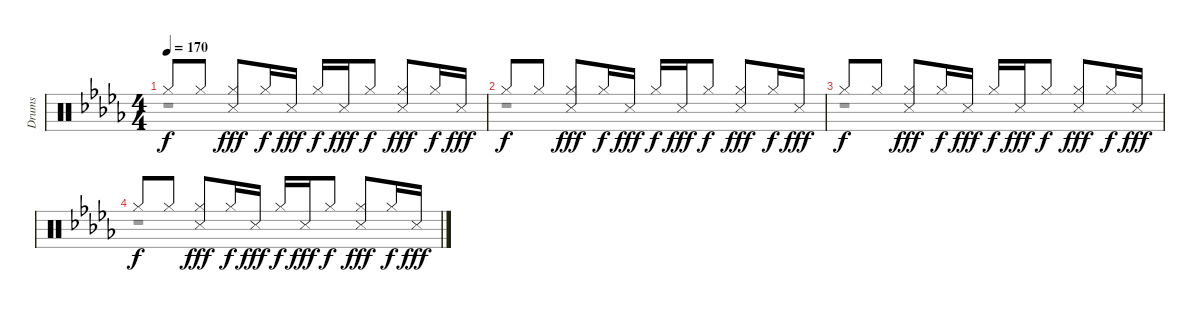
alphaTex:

\track ("Drums" "Drums") {instrument percussion}
\staff {score}
\articulation defaults
\voice
\ts (4 4)
\tempo 170
\clef neutral
\ks db "Hi-Hat (closed)".8{dy f} "Hi-Hat (closed)".8
("Hi-Hat (closed)" "Snare (side stick) 3").8{dy fff} "Hi-Hat (closed)".16{dy f} "Snare (side stick) 3".16{dy fff} "Hi-Hat (closed)".16{dy f} "Snare (side stick) 3".16{dy fff} "Hi-Hat (closed)".8{dy f} ("Hi-Hat (closed)" "Snare (side stick) 3").8{dy fff} "Hi-Hat (closed)".16{dy f} "Snare (side stick) 3".16{dy fff} |
"Hi-Hat (closed)".8{dy f} "Hi-Hat (closed)".8 ("Hi-Hat (closed)" "Snare (side stick) 3").8{dy fff} "Hi-Hat (closed)".16{dy f} "Snare (side stick) 3".16{dy fff} "Hi-Hat (closed)".16{dy f} "Snare (side stick) 3".16{dy fff} "Hi-Hat (closed)".8{dy f} ("Hi-Hat (closed)" "Snare (side stick) 3").8{dy fff} "Hi-Hat (closed)".16{dy f} "Snare (side stick) 3".16{dy fff} |
"Hi-Hat (closed)".8{dy f} "Hi-Hat (closed)".8 ("Hi-Hat (closed)" "Snare (side stick) 3").8{dy fff} "Hi-Hat (closed)".16{dy f} "Snare (side stick) 3".16{dy fff} "Hi-Hat (closed)".16{dy f} "Snare (side stick) 3".16{dy fff} "Hi-Hat (closed)".8{dy f} ("Hi-Hat (closed)" "Snare (side stick) 3").8{dy fff} "Hi-Hat (closed)".16{dy f} "Snare (side stick) 3".16{dy fff} |
"Hi-Hat (closed)".8{dy f} "Hi-Hat (closed)".8 ("Hi-Hat (closed)" "Snare (side stick) 3").8{dy fff} "Hi-Hat (closed)".16{dy f} "Snare (side stick) 3".16{dy fff} "Hi-Hat (closed)".16{dy f} "Snare (side stick) 3".16{dy fff} "Hi-Hat (closed)".8{dy f} ("Hi-Hat (closed)" "Snare (side stick) 3").8{dy fff} "Hi-Hat (closed)".16{dy f} "Snare (side stick) 3".16{dy fff}
\voice
\clef neutral
\ottava regular
\simile none
\ks db
r.1{dy fff} |
r.1 |
r.1 |
r.1
